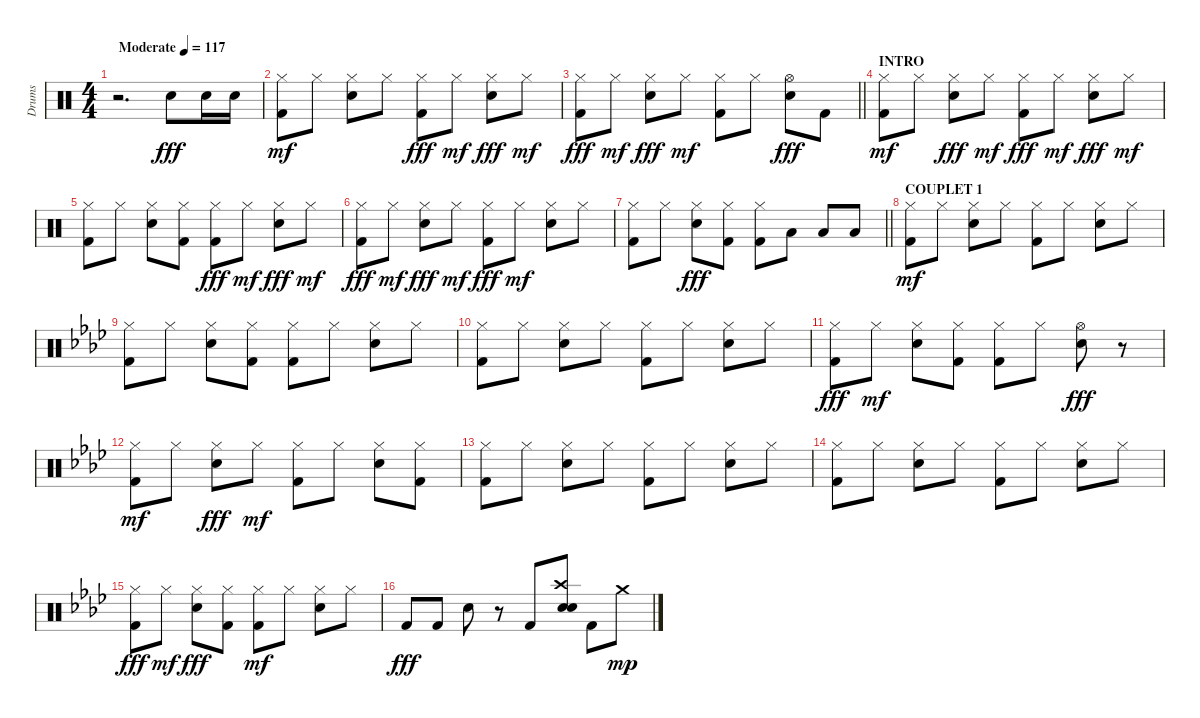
\track ("Drums" "Drums") {instrument percussion}
\staff {score}
\articulation defaults
\ts (4 4)
\tempo (117 "Moderate")
\clef neutral
\ks c
r.2{d dy fff} "Snare (hit) 2".8 "Snare (hit) 2".16 "Snare (hit) 2".16 |
("Kick (hit) 2" "Hi-Hat (closed)").8{dy mf} "Hi-Hat (closed)".8 ("Snare (hit) 2" "Hi-Hat (closed)").8 "Hi-Hat (closed)".8 ("Hi-Hat (closed)" "Kick (hit) 2").8{dy fff} "Hi-Hat (closed)".8{dy mf} ("Hi-Hat (closed)" "Snare (hit) 2").8{dy fff} "Hi-Hat (closed)".8{dy mf} |
\barLineRight lightlight
("Hi-Hat (closed)" "Kick (hit) 2").8{dy fff} "Hi-Hat (closed)".8{dy mf} ("Hi-Hat (closed)" "Snare (hit) 2").8{dy fff} "Hi-Hat (closed)".8{dy mf} ("Kick (hit) 2" "Hi-Hat (closed)").8 "Hi-Hat (closed)".8 ("Hi-Hat (open)" "Snare (hit) 2").8{dy fff} "Kick (hit) 2".8 |
\section ("" "INTRO")
("Kick (hit) 2" "Hi-Hat (closed)").8{dy mf} "Hi-Hat (closed)".8 ("Hi-Hat (closed)" "Snare (hit) 2").8{dy fff} "Hi-Hat (closed)".8{dy mf} ("Hi-Hat (closed)" "Kick (hit) 2").8{dy fff} "Hi-Hat (closed)".8{dy mf} ("Hi-Hat (closed)" "Snare (hit) 2").8{dy fff} "Hi-Hat (closed)".8{dy mf} |
("Kick (hit) 2" "Hi-Hat (closed)").8 "Hi-Hat (closed)".8 ("Snare (hit) 2" "Hi-Hat (closed)").8 ("Kick (hit) 2" "Hi-Hat (closed)").8 ("Hi-Hat (closed)" "Kick (hit) 2").8{dy fff} "Hi-Hat (closed)".8{dy mf} ("Hi-Hat (closed)" "Snare (hit) 2").8{dy fff} "Hi-Hat (closed)".8{dy mf} |
("Hi-Hat (closed)" "Kick (hit) 2").8{dy fff} "Hi-Hat (closed)".8{dy mf} ("Hi-Hat (closed)" "Snare (hit) 2").8{dy fff} "Hi-Hat (closed)".8{dy mf} ("Hi-Hat (closed)" "Kick (hit) 2").8{dy fff} "Hi-Hat (closed)".8{dy mf} ("Snare (hit) 2" "Hi-Hat (closed)").8 "Hi-Hat (closed)".8 |
\barLineRight lightlight
("Kick (hit) 2" "Hi-Hat (closed)").8 "Hi-Hat (closed)".8 ("Hi-Hat (closed)" "Snare (hit) 2").8{dy fff} ("Hi-Hat (closed)" "Kick (hit) 2").8 ("Hi-Hat (closed)" "Kick (hit) 2").8 "Low Floor Tom (hit)".8 "Low Tom (hit)".8 "Low Floor Tom (hit)".8 |
\section ("" "COUPLET 1")
("Kick (hit) 2" "Hi-Hat (closed)").8{dy mf} "Hi-Hat (closed)".8 ("Snare (hit) 2" "Hi-Hat (closed)").8 "Hi-Hat (closed)".8 ("Kick (hit) 2" "Hi-Hat (closed)").8 "Hi-Hat (closed)".8 ("Snare (hit) 2" "Hi-Hat (closed)").8 "Hi-Hat (closed)".8 |
\ks ab
("Kick (hit) 2" "Hi-Hat (closed)").8 "Hi-Hat (closed)".8 ("Snare (hit) 2" "Hi-Hat (closed)").8 ("Kick (hit) 2" "Hi-Hat (closed)").8 ("Kick (hit) 2" "Hi-Hat (closed)").8 "Hi-Hat (closed)".8 ("Snare (hit) 2" "Hi-Hat (closed)").8 "Hi-Hat (closed)".8 |
("Kick (hit) 2" "Hi-Hat (closed)").8 "Hi-Hat (closed)".8 ("Snare (hit) 2" "Hi-Hat (closed)").8 "Hi-Hat (closed)".8 ("Kick (hit) 2" "Hi-Hat (closed)").8 "Hi-Hat (closed)".8 ("Snare (hit) 2" "Hi-Hat (closed)").8 "Hi-Hat (closed)".8 |
("Hi-Hat (closed)" "Kick (hit) 2").8{dy fff} "Hi-Hat (closed)".8{dy mf} ("Snare (hit) 2" "Hi-Hat (closed)").8 ("Kick (hit) 2" "Hi-Hat (closed)").8 ("Kick (hit) 2" "Hi-Hat (closed)").8 "Hi-Hat (closed)".8 ("Hi-Hat (open)" "Snare (hit) 2").8{dy fff} r.8 |
("Kick (hit) 2" "Hi-Hat (closed)").8{dy mf} "Hi-Hat (closed)".8 ("Hi-Hat (closed)" "Snare (hit) 2").8{dy fff} "Hi-Hat (closed)".8{dy mf} ("Kick (hit) 2" "Hi-Hat (closed)").8 "Hi-Hat (closed)".8 ("Snare (hit) 2" "Hi-Hat (closed)").8 ("Kick (hit) 2" "Hi-Hat (closed)").8 |
("Kick (hit) 2" "Hi-Hat (closed)").8 "Hi-Hat (closed)".8 ("Snare (hit) 2" "Hi-Hat (closed)").8 "Hi-Hat (closed)".8 ("Kick (hit) 2" "Hi-Hat (closed)").8 "Hi-Hat (closed)".8 ("Snare (hit) 2" "Hi-Hat (closed)").8 "Hi-Hat (closed)".8 |
("Kick (hit) 2" "Hi-Hat (closed)").8 "Hi-Hat (closed)".8 ("Snare (hit) 2" "Hi-Hat (closed)").8 "Hi-Hat (closed)".8 ("Kick (hit) 2" "Hi-Hat (closed)").8 "Hi-Hat (closed)".8 ("Snare (hit) 2" "Hi-Hat (closed)").8 "Hi-Hat (closed)".8 |
("Hi-Hat (closed)" "Kick (hit) 2").8{dy fff} "Hi-Hat (closed)".8{dy mf} ("Hi-Hat (closed)" "Snare (hit) 2").8{dy fff} ("Hi-Hat (closed)" "Kick (hit) 2").8 ("Kick (hit) 2" "Hi-Hat (closed)").8{dy mf} "Hi-Hat (closed)".8 ("Snare (hit) 2" "Hi-Hat (closed)").8 "Hi-Hat (closed)".8 |
"Kick (hit) 2".8{dy fff} "Kick (hit) 2".8 "Snare (hit) 2".8 r.8 "Kick (hit) 2".8 ("Crash high (hit)" "Electric Snare (hit)" "Snare (hit) 2").8 "Kick (hit) 2".8 "Crash medium (hit)".8{dy mp}
